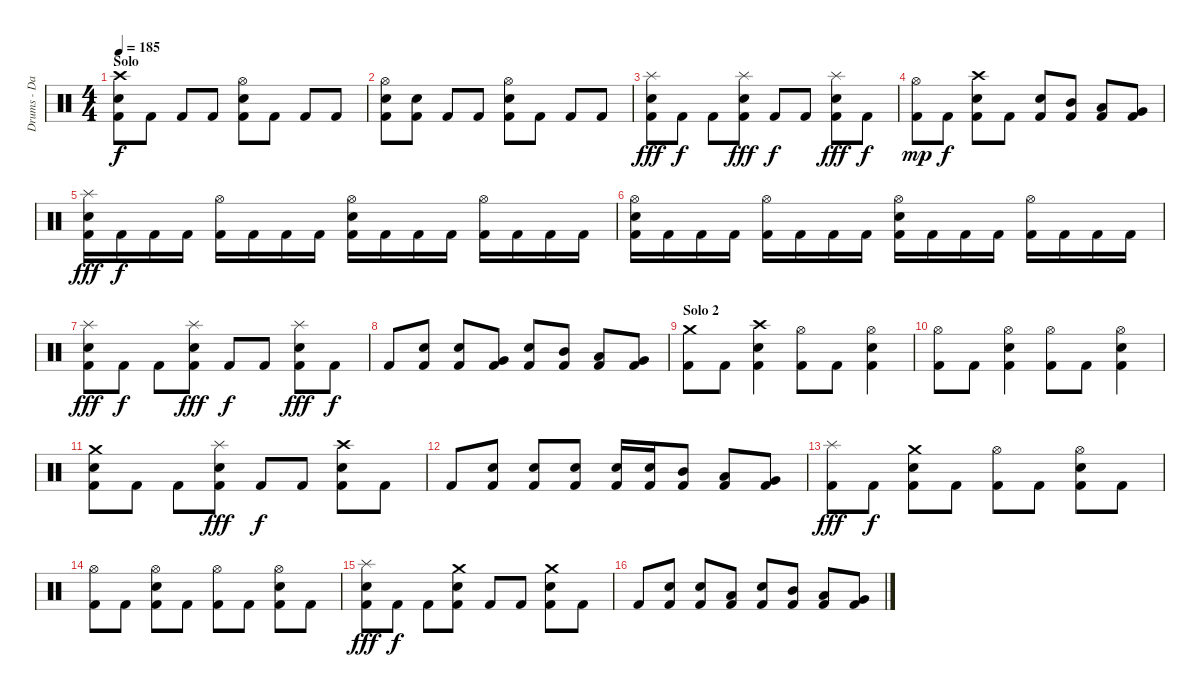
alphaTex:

\track ("Drums - Daniel Zimmermann" "Drums - Da") {instrument percussion}
\staff {score}
\articulation defaults
\ts (4 4)
\section ("" "Solo")
\tempo 185
\clef neutral
\ks c
("Kick (hit) 2" "Electric Snare (hit)" "Crash high (hit)").8{dy f} "Kick (hit) 2".8 "Kick (hit) 2".8 "Kick (hit) 2".8 ("Kick (hit) 2" "Electric Snare (hit)" "Hi-Hat (open)").8 "Kick (hit) 2".8 "Kick (hit) 2".8 "Kick (hit) 2".8 |
("Kick (hit) 2" "Electric Snare (hit)" "Hi-Hat (open)").8 ("Kick (hit) 2" "Electric Snare (hit)").8 "Kick (hit) 2".8 "Kick (hit) 2".8 ("Kick (hit) 2" "Electric Snare (hit)" "Hi-Hat (open)").8 "Kick (hit) 2".8 "Kick (hit) 2".8 "Kick (hit) 2".8 |
("Kick (hit) 2" "Electric Snare (hit)" "Splash (hit)").8{dy fff} "Kick (hit) 2".8{dy f} "Kick (hit) 2".8 ("Kick (hit) 2" "Electric Snare (hit)" "Splash (hit)").8{dy fff} "Kick (hit) 2".8{dy f} "Kick (hit) 2".8 ("Kick (hit) 2" "Electric Snare (hit)" "Splash (hit)").8{dy fff} "Kick (hit) 2".8{dy f} |
("Kick (hit) 2" "Hi-Hat (open)").8{dy mp} "Kick (hit) 2".8{dy f} ("Kick (hit) 2" "Electric Snare (hit)" "Crash high (hit)").8 "Kick (hit) 2".8 ("Kick (hit) 2" "Electric Snare (hit)").8 ("Kick (hit) 2" "Mid Tom (hit)").8 ("Kick (hit) 2" "Low Tom (hit)").8 ("Kick (hit) 2" "Very Low Tom (hit)").8 |
("Kick (hit) 2" "Electric Snare (hit)" "Splash (hit)").16{dy fff} "Kick (hit) 2".16{dy f} "Kick (hit) 2".16 "Kick (hit) 2".16 ("Kick (hit) 2" "Hi-Hat (open)").16 "Kick (hit) 2".16 "Kick (hit) 2".16 "Kick (hit) 2".16 ("Kick (hit) 2" "Electric Snare (hit)" "Hi-Hat (open)").16 "Kick (hit) 2".16 "Kick (hit) 2".16 "Kick (hit) 2".16 ("Kick (hit) 2" "Hi-Hat (open)").16 "Kick (hit) 2".16 "Kick (hit) 2".16 "Kick (hit) 2".16 |
("Kick (hit) 2" "Electric Snare (hit)" "Hi-Hat (open)").16 "Kick (hit) 2".16 "Kick (hit) 2".16 "Kick (hit) 2".16 ("Kick (hit) 2" "Hi-Hat (open)").16 "Kick (hit) 2".16 "Kick (hit) 2".16 "Kick (hit) 2".16 ("Kick (hit) 2" "Electric Snare (hit)" "Hi-Hat (open)").16 "Kick (hit) 2".16 "Kick (hit) 2".16 "Kick (hit) 2".16 ("Kick (hit) 2" "Hi-Hat (open)").16 "Kick (hit) 2".16 "Kick (hit) 2".16 "Kick (hit) 2".16 |
("Kick (hit) 2" "Electric Snare (hit)" "Splash (hit)").8{dy fff} "Kick (hit) 2".8{dy f} "Kick (hit) 2".8 ("Kick (hit) 2" "Electric Snare (hit)" "Splash (hit)").8{dy fff} "Kick (hit) 2".8{dy f} "Kick (hit) 2".8 ("Kick (hit) 2" "Electric Snare (hit)" "Splash (hit)").8{dy fff} "Kick (hit) 2".8{dy f} |
"Kick (hit) 2".8 ("Kick (hit) 2" "Electric Snare (hit)").8 ("Kick (hit) 2" "Electric Snare (hit)").8 ("Kick (hit) 2" "Very Low Tom (hit)").8 ("Kick (hit) 2" "Electric Snare (hit)").8 ("Kick (hit) 2" "Mid Tom (hit)").8 ("Kick (hit) 2" "Low Tom (hit)").8 ("Kick (hit) 2" "Very Low Tom (hit)").8 |
\section ("" "Solo 2")
("Kick (hit) 2" "Crash medium (hit)").8 "Kick (hit) 2".8 ("Kick (hit) 2" "Electric Snare (hit)" "Crash high (hit)").4 ("Kick (hit) 2" "Hi-Hat (open)").8 "Kick (hit) 2".8 ("Kick (hit) 2" "Electric Snare (hit)" "Hi-Hat (open)").4 |
("Kick (hit) 2" "Hi-Hat (open)").8 "Kick (hit) 2".8 ("Kick (hit) 2" "Electric Snare (hit)" "Hi-Hat (open)").4 ("Kick (hit) 2" "Hi-Hat (open)").8 "Kick (hit) 2".8 ("Kick (hit) 2" "Electric Snare (hit)" "Hi-Hat (open)").4 |
("Kick (hit) 2" "Electric Snare (hit)" "Crash medium (hit)").8 "Kick (hit) 2".8 "Kick (hit) 2".8 ("Kick (hit) 2" "Electric Snare (hit)" "Splash (hit)").8{dy fff} "Kick (hit) 2".8{dy f} "Kick (hit) 2".8 ("Kick (hit) 2" "Electric Snare (hit)" "Crash high (hit)").8 "Kick (hit) 2".8 |
"Kick (hit) 2".8 ("Kick (hit) 2" "Electric Snare (hit)").8 ("Kick (hit) 2" "Electric Snare (hit)").8 ("Kick (hit) 2" "Electric Snare (hit)").8 ("Kick (hit) 2" "Electric Snare (hit)").16 ("Kick (hit) 2" "Electric Snare (hit)").16 ("Kick (hit) 2" "Mid Tom (hit)").8 ("Kick (hit) 2" "Low Tom (hit)").8 ("Kick (hit) 2" "Very Low Tom (hit)").8 |
("Kick (hit) 2" "Splash (hit)").8{dy fff} "Kick (hit) 2".8{dy f} ("Kick (hit) 2" "Electric Snare (hit)" "Crash medium (hit)").8 "Kick (hit) 2".8 ("Kick (hit) 2" "Hi-Hat (open)").8 "Kick (hit) 2".8 ("Kick (hit) 2" "Electric Snare (hit)" "Hi-Hat (open)").8 "Kick (hit) 2".8 |
("Kick (hit) 2" "Hi-Hat (open)").8 "Kick (hit) 2".8 ("Kick (hit) 2" "Electric Snare (hit)" "Hi-Hat (open)").8 "Kick (hit) 2".8 ("Kick (hit) 2" "Hi-Hat (open)").8 "Kick (hit) 2".8 ("Kick (hit) 2" "Electric Snare (hit)" "Hi-Hat (open)").8 "Kick (hit) 2".8 |
("Kick (hit) 2" "Electric Snare (hit)" "Splash (hit)").8{dy fff} "Kick (hit) 2".8{dy f} "Kick (hit) 2".8 ("Kick (hit) 2" "Electric Snare (hit)" "Crash medium (hit)").8 "Kick (hit) 2".8 "Kick (hit) 2".8 ("Kick (hit) 2" "Electric Snare (hit)" "Crash medium (hit)").8 "Kick (hit) 2".8 |
"Kick (hit) 2".8 ("Kick (hit) 2" "Electric Snare (hit)").8 ("Kick (hit) 2" "Electric Snare (hit)").8 ("Kick (hit) 2" "Low Tom (hit)").8 ("Kick (hit) 2" "Electric Snare (hit)").8 ("Kick (hit) 2" "Mid Tom (hit)").8 ("Kick (hit) 2" "Low Tom (hit)").8 ("Kick (hit) 2" "Very Low Tom (hit)").8
